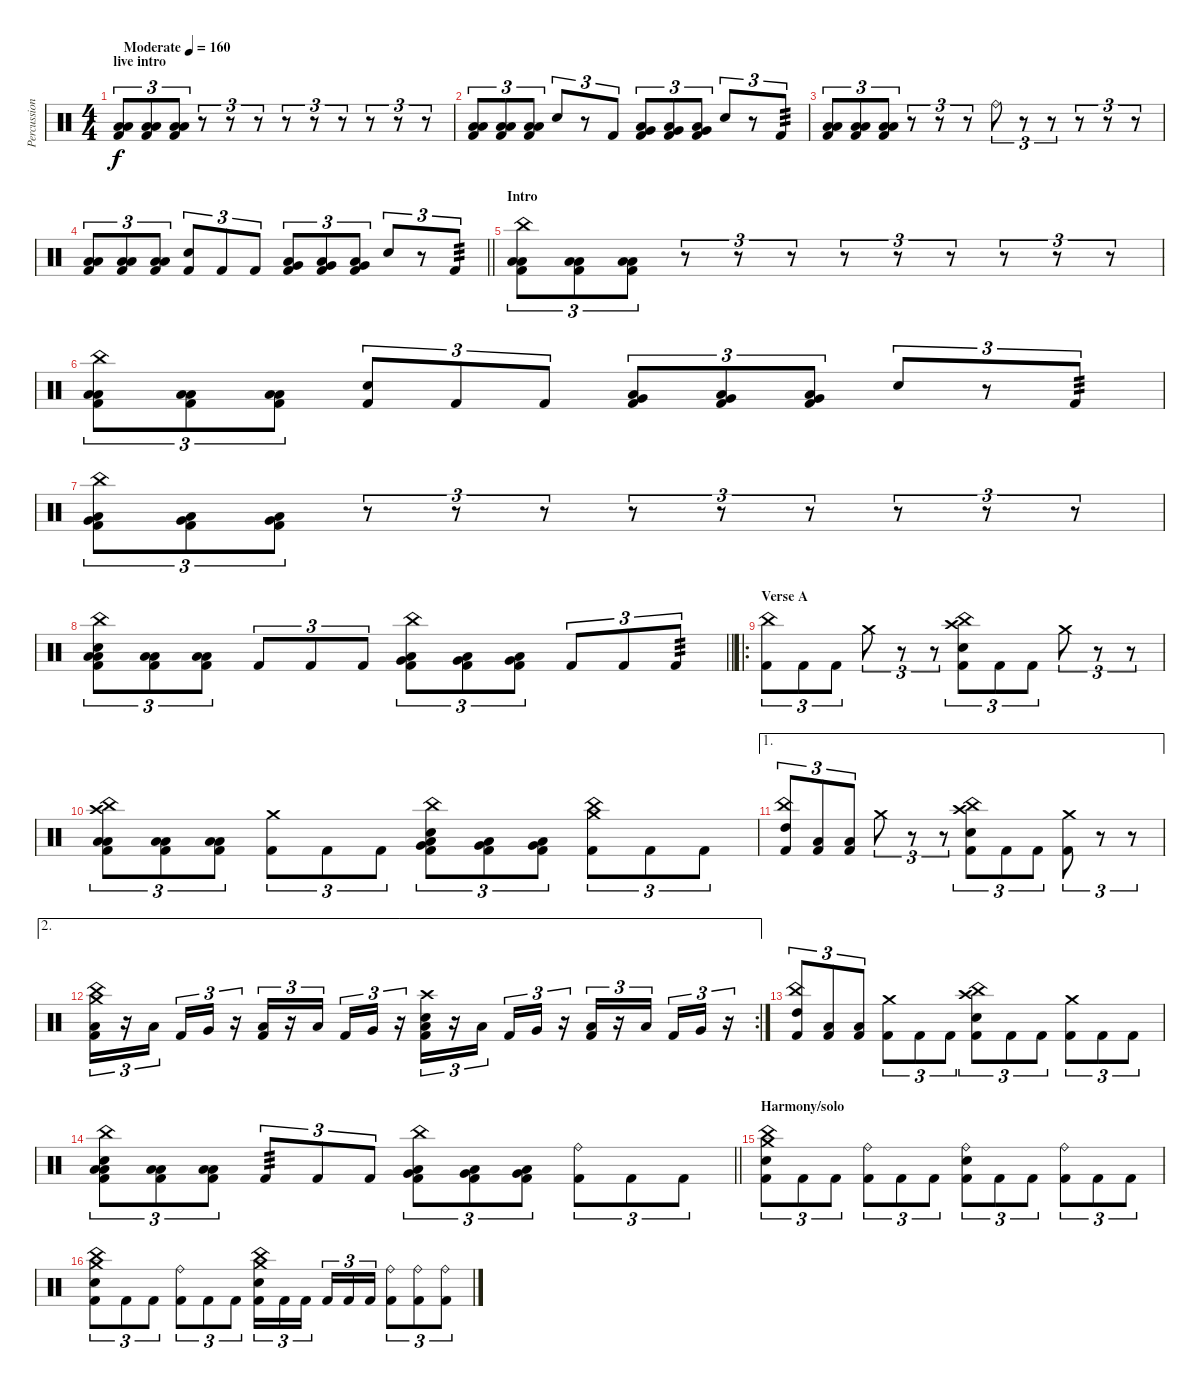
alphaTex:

\track ("Percussion" "Percussion") {instrument percussion}
\staff {score}
\articulation defaults
\ts (4 4)
\section ("" "live intro")
\tempo (160 "Moderate")
\clef neutral
\ks c
("Low Floor Tom (hit)" "Low Tom (hit)" "Kick (hit) 2").8{tu (3 2) dy f} ("Low Floor Tom (hit)" "Low Tom (hit)" "Kick (hit) 2").8{tu (3 2)} ("Low Floor Tom (hit)" "Low Tom (hit)" "Kick (hit) 2").8{tu (3 2)} r.8{tu (3 2)} r.8{tu (3 2)} r.8{tu (3 2)} r.8{tu (3 2)} r.8{tu (3 2)} r.8{tu (3 2)} r.8{tu (3 2)} r.8{tu (3 2)} r.8{tu (3 2)} |
("Low Tom (hit)" "Low Floor Tom (hit)" "Kick (hit) 2").8{tu (3 2)} ("Low Tom (hit)" "Low Floor Tom (hit)" "Kick (hit) 2").8{tu (3 2)} ("Low Tom (hit)" "Low Floor Tom (hit)" "Kick (hit) 2").8{tu (3 2)} "Electric Snare (hit)".8{tu (3 2)} r.8{tu (3 2)} "Kick (hit) 2".8{tu (3 2)} ("Very Low Tom (hit)" "Low Floor Tom (hit)" "Kick (hit) 2").8{tu (3 2)} ("Very Low Tom (hit)" "Low Floor Tom (hit)" "Kick (hit) 2").8{tu (3 2)} ("Very Low Tom (hit)" "Low Floor Tom (hit)" "Kick (hit) 2").8{tu (3 2)} "Electric Snare (hit)".8{tu (3 2)} r.8{tu (3 2)} "Kick (hit) 2".8{tu (3 2) tp 3} |
("Low Floor Tom (hit)" "Low Tom (hit)" "Kick (hit) 2").8{tu (3 2)} ("Low Floor Tom (hit)" "Low Tom (hit)" "Kick (hit) 2").8{tu (3 2)} ("Low Floor Tom (hit)" "Low Tom (hit)" "Kick (hit) 2").8{tu (3 2)} r.8{tu (3 2)} r.8{tu (3 2)} r.8{tu (3 2)} "Ride (bell)".8{tu (3 2)} r.8{tu (3 2)} r.8{tu (3 2)} r.8{tu (3 2)} r.8{tu (3 2)} r.8{tu (3 2)} |
\barLineRight lightlight
("Low Tom (hit)" "Low Floor Tom (hit)" "Kick (hit) 2").8{tu (3 2)} ("Low Tom (hit)" "Low Floor Tom (hit)" "Kick (hit) 2").8{tu (3 2)} ("Low Tom (hit)" "Low Floor Tom (hit)" "Kick (hit) 2").8{tu (3 2)} ("Electric Snare (hit)" "Kick (hit) 2").8{tu (3 2)} "Kick (hit) 2".8{tu (3 2)} "Kick (hit) 2".8{tu (3 2)} ("Very Low Tom (hit)" "Low Floor Tom (hit)" "Kick (hit) 2").8{tu (3 2)} ("Very Low Tom (hit)" "Low Floor Tom (hit)" "Kick (hit) 2").8{tu (3 2)} ("Very Low Tom (hit)" "Low Floor Tom (hit)" "Kick (hit) 2").8{tu (3 2)} "Electric Snare (hit)".8{tu (3 2)} r.8{tu (3 2)} "Kick (hit) 2".8{tu (3 2) tp 3} |
\section ("" "Intro")
("China (hit)" "Low Floor Tom (hit)" "Low Tom (hit)" "Kick (hit) 2").8{tu (3 2)} ("Low Floor Tom (hit)" "Low Tom (hit)" "Kick (hit) 2").8{tu (3 2)} ("Low Floor Tom (hit)" "Low Tom (hit)" "Kick (hit) 2").8{tu (3 2)} r.8{tu (3 2)} r.8{tu (3 2)} r.8{tu (3 2)} r.8{tu (3 2)} r.8{tu (3 2)} r.8{tu (3 2)} r.8{tu (3 2)} r.8{tu (3 2)} r.8{tu (3 2)} |
("China (hit)" "Low Tom (hit)" "Low Floor Tom (hit)" "Kick (hit) 2").8{tu (3 2)} ("Low Tom (hit)" "Low Floor Tom (hit)" "Kick (hit) 2").8{tu (3 2)} ("Low Tom (hit)" "Low Floor Tom (hit)" "Kick (hit) 2").8{tu (3 2)} ("Electric Snare (hit)" "Kick (hit) 2").8{tu (3 2)} "Kick (hit) 2".8{tu (3 2)} "Kick (hit) 2".8{tu (3 2)} ("Very Low Tom (hit)" "Low Floor Tom (hit)" "Kick (hit) 2").8{tu (3 2)} ("Very Low Tom (hit)" "Low Floor Tom (hit)" "Kick (hit) 2").8{tu (3 2)} ("Very Low Tom (hit)" "Low Floor Tom (hit)" "Kick (hit) 2").8{tu (3 2)} "Electric Snare (hit)".8{tu (3 2)} r.8{tu (3 2)} "Kick (hit) 2".8{tu (3 2) tp 3} |
("China (hit)" "Low Floor Tom (hit)" "Very Low Tom (hit)" "Kick (hit) 2").8{tu (3 2)} ("Low Floor Tom (hit)" "Very Low Tom (hit)" "Kick (hit) 2").8{tu (3 2)} ("Low Floor Tom (hit)" "Very Low Tom (hit)" "Kick (hit) 2").8{tu (3 2)} r.8{tu (3 2)} r.8{tu (3 2)} r.8{tu (3 2)} r.8{tu (3 2)} r.8{tu (3 2)} r.8{tu (3 2)} r.8{tu (3 2)} r.8{tu (3 2)} r.8{tu (3 2)} |
\barLineRight lightlight
("China (hit)" "Electric Snare (hit)" "Low Tom (hit)" "Low Floor Tom (hit)" "Kick (hit) 2").8{tu (3 2)} ("Low Tom (hit)" "Low Floor Tom (hit)" "Kick (hit) 2").8{tu (3 2)} ("Low Tom (hit)" "Low Floor Tom (hit)" "Kick (hit) 2").8{tu (3 2)} "Kick (hit) 2".8{tu (3 2)} "Kick (hit) 2".8{tu (3 2)} "Kick (hit) 2".8{tu (3 2)} ("China (hit)" "Very Low Tom (hit)" "Low Floor Tom (hit)" "Kick (hit) 2").8{tu (3 2)} ("Very Low Tom (hit)" "Low Floor Tom (hit)" "Kick (hit) 2").8{tu (3 2)} ("Very Low Tom (hit)" "Low Floor Tom (hit)" "Kick (hit) 2").8{tu (3 2)} "Kick (hit) 2".8{tu (3 2)} "Kick (hit) 2".8{tu (3 2)} "Kick (hit) 2".8{tu (3 2) tp 3} |
\ro
\section ("" "Verse A")
("China (hit)" "Kick (hit) 2").8{tu (3 2)} "Kick (hit) 2".8{tu (3 2)} "Kick (hit) 2".8{tu (3 2)} "Crash medium (hit)".8{tu (3 2)} r.8{tu (3 2)} r.8{tu (3 2)} ("China (hit)" "Crash high (hit)" "Electric Snare (hit)" "Kick (hit) 2").8{tu (3 2)} "Kick (hit) 2".8{tu (3 2)} "Kick (hit) 2".8{tu (3 2)} "Crash medium (hit)".8{tu (3 2)} r.8{tu (3 2)} r.8{tu (3 2)} |
("China (hit)" "Crash high (hit)" "Low Tom (hit)" "Low Floor Tom (hit)" "Kick (hit) 2").8{tu (3 2)} ("Low Tom (hit)" "Low Floor Tom (hit)" "Kick (hit) 2").8{tu (3 2)} ("Low Tom (hit)" "Low Floor Tom (hit)" "Kick (hit) 2").8{tu (3 2)} ("Crash medium (hit)" "Kick (hit) 2").8{tu (3 2)} "Kick (hit) 2".8{tu (3 2)} "Kick (hit) 2".8{tu (3 2)} ("Electric Snare (hit)" "China (hit)" "Very Low Tom (hit)" "Low Floor Tom (hit)" "Kick (hit) 2").8{tu (3 2)} ("Very Low Tom (hit)" "Low Floor Tom (hit)" "Kick (hit) 2").8{tu (3 2)} ("Very Low Tom (hit)" "Low Floor Tom (hit)" "Kick (hit) 2").8{tu (3 2)} ("Crash medium (hit)" "China (hit)" "Kick (hit) 2").8{tu (3 2)} "Kick (hit) 2".8{tu (3 2)} "Kick (hit) 2".8{tu (3 2)} |
\ae 1
("China (hit)" "High Tom (hit)" "Kick (hit) 2").8{tu (3 2)} ("Low Tom (hit)" "Kick (hit) 2").8{tu (3 2)} ("Low Floor Tom (hit)" "Kick (hit) 2").8{tu (3 2)} "Crash medium (hit)".8{tu (3 2)} r.8{tu (3 2)} r.8{tu (3 2)} ("China (hit)" "Crash high (hit)" "Electric Snare (hit)" "Kick (hit) 2").8{tu (3 2)} "Kick (hit) 2".8{tu (3 2)} "Kick (hit) 2".8{tu (3 2)} ("Crash medium (hit)" "Kick (hit) 2").8{tu (3 2)} r.8{tu (3 2)} r.8{tu (3 2)} |
\ae 2
\rc 2
("Kick (hit) 2" "Low Floor Tom (hit)" "Crash medium (hit)" "China (hit)").16{tu (3 2)} r.16{tu (3 2)} "Low Tom (hit)".16{tu (3 2) beam splitsecondary} "Kick (hit) 2".16{tu (3 2)} "Very Low Tom (hit)".16{tu (3 2)} r.16{tu (3 2)} ("Kick (hit) 2" "Low Floor Tom (hit)").16{tu (3 2)} r.16{tu (3 2)} "Low Tom (hit)".16{tu (3 2) beam splitsecondary} "Kick (hit) 2".16{tu (3 2)} "Very Low Tom (hit)".16{tu (3 2)} r.16{tu (3 2)} ("Kick (hit) 2" "Low Floor Tom (hit)" "Electric Snare (hit)" "Crash high (hit)").16{tu (3 2)} r.16{tu (3 2)} "Low Tom (hit)".16{tu (3 2) beam splitsecondary} "Kick (hit) 2".16{tu (3 2)} "Very Low Tom (hit)".16{tu (3 2)} r.16{tu (3 2)} ("Kick (hit) 2" "Low Floor Tom (hit)").16{tu (3 2)} r.16{tu (3 2)} "Low Tom (hit)".16{tu (3 2) beam splitsecondary} "Kick (hit) 2".16{tu (3 2)} "Very Low Tom (hit)".16{tu (3 2)} r.16{tu (3 2)} |
("China (hit)" "High Tom (hit)" "Kick (hit) 2").8{tu (3 2)} ("Low Tom (hit)" "Kick (hit) 2").8{tu (3 2)} ("Low Floor Tom (hit)" "Kick (hit) 2").8{tu (3 2)} ("Crash medium (hit)" "Kick (hit) 2").8{tu (3 2)} "Kick (hit) 2".8{tu (3 2)} "Kick (hit) 2".8{tu (3 2)} ("China (hit)" "Crash high (hit)" "Electric Snare (hit)" "Kick (hit) 2").8{tu (3 2)} "Kick (hit) 2".8{tu (3 2)} "Kick (hit) 2".8{tu (3 2)} ("Crash medium (hit)" "Kick (hit) 2").8{tu (3 2)} "Kick (hit) 2".8{tu (3 2)} "Kick (hit) 2".8{tu (3 2)} |
\barLineRight lightlight
("China (hit)" "Electric Snare (hit)" "Low Tom (hit)" "Low Floor Tom (hit)" "Kick (hit) 2").8{tu (3 2)} ("Low Tom (hit)" "Low Floor Tom (hit)" "Kick (hit) 2").8{tu (3 2)} ("Low Tom (hit)" "Low Floor Tom (hit)" "Kick (hit) 2").8{tu (3 2)} "Kick (hit) 2".8{tu (3 2) tp 3} "Kick (hit) 2".8{tu (3 2)} "Kick (hit) 2".8{tu (3 2)} ("China (hit)" "Very Low Tom (hit)" "Low Floor Tom (hit)" "Kick (hit) 2").8{tu (3 2)} ("Very Low Tom (hit)" "Low Floor Tom (hit)" "Kick (hit) 2").8{tu (3 2)} ("Very Low Tom (hit)" "Low Floor Tom (hit)" "Kick (hit) 2").8{tu (3 2)} ("Ride (bell)" "Kick (hit) 2").8{tu (3 2)} "Kick (hit) 2".8{tu (3 2)} "Kick (hit) 2".8{tu (3 2)} |
\section ("" "Harmony/solo")
("Electric Snare (hit)" "Kick (hit) 2" "Crash medium (hit)" "China (hit)").8{tu (3 2)} "Kick (hit) 2".8{tu (3 2)} "Kick (hit) 2".8{tu (3 2)} ("Kick (hit) 2" "Ride (bell)").8{tu (3 2)} "Kick (hit) 2".8{tu (3 2)} "Kick (hit) 2".8{tu (3 2)} ("Electric Snare (hit)" "Kick (hit) 2" "Ride (bell)").8{tu (3 2)} "Kick (hit) 2".8{tu (3 2)} "Kick (hit) 2".8{tu (3 2)} ("Kick (hit) 2" "Ride (bell)").8{tu (3 2)} "Kick (hit) 2".8{tu (3 2)} "Kick (hit) 2".8{tu (3 2)} |
("Electric Snare (hit)" "Kick (hit) 2" "Crash medium (hit)" "China (hit)").8{tu (3 2)} "Kick (hit) 2".8{tu (3 2)} "Kick (hit) 2".8{tu (3 2)} ("Kick (hit) 2" "Ride (bell)").8{tu (3 2)} "Kick (hit) 2".8{tu (3 2)} "Kick (hit) 2".8{tu (3 2)} ("Electric Snare (hit)" "Kick (hit) 2" "Crash medium (hit)" "China (hit)").16{tu (3 2)} "Kick (hit) 2".16{tu (3 2)} "Kick (hit) 2".16{tu (3 2) beam splitsecondary} "Kick (hit) 2".16{tu (3 2)} "Kick (hit) 2".16{tu (3 2)} "Kick (hit) 2".16{tu (3 2)} ("Kick (hit) 2" "Ride (bell)").8{tu (3 2)} ("Kick (hit) 2" "Ride (bell)").8{tu (3 2)} ("Kick (hit) 2" "Ride (bell)").8{tu (3 2)}
